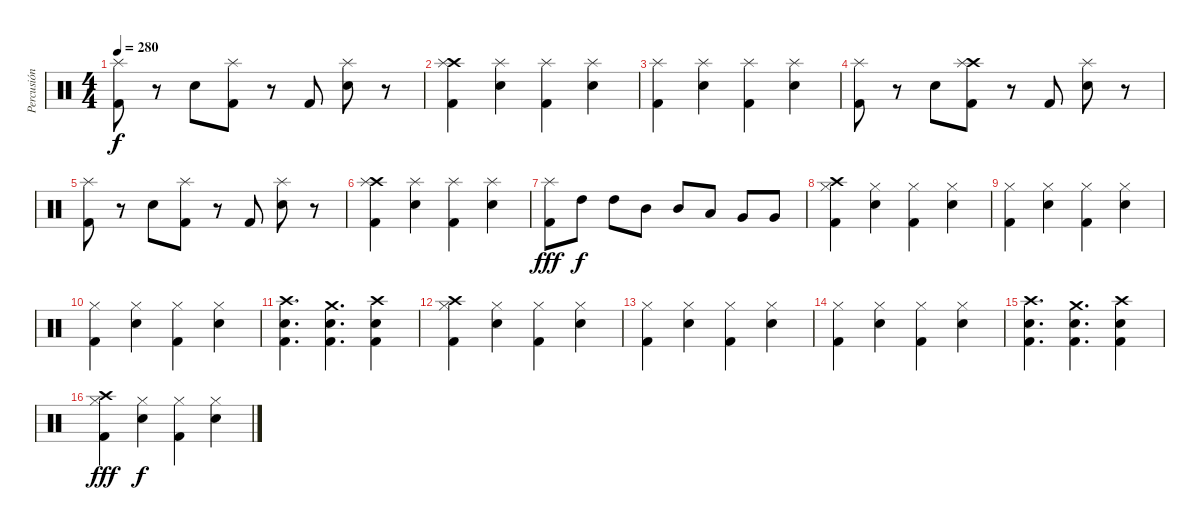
\track ("Percusión" "Percusión") {instrument percussion}
\staff {score}
\articulation defaults
\ts (4 4)
\tempo 280
\clef neutral
\ks c
("Splash (hit)" "Kick (hit) 2").8{dy f} r.8 "Snare (hit) 2".8 ("Splash (hit)" "Kick (hit) 2").8 r.8 "Kick (hit) 2".8 ("Snare (hit) 2" "Splash (hit)").8 r.8 |
("Crash high (hit)" "Splash (hit)" "Kick (hit) 2").4 ("Snare (hit) 2" "Splash (hit)").4 ("Splash (hit)" "Kick (hit) 2").4 ("Snare (hit) 2" "Splash (hit)").4 |
("Splash (hit)" "Kick (hit) 2").4 ("Snare (hit) 2" "Splash (hit)").4 ("Splash (hit)" "Kick (hit) 2").4 ("Snare (hit) 2" "Splash (hit)").4 |
("Splash (hit)" "Kick (hit) 2").8 r.8 "Snare (hit) 2".8 ("Crash high (hit)" "Splash (hit)" "Kick (hit) 2").8 r.8 "Kick (hit) 2".8 ("Snare (hit) 2" "Splash (hit)").8 r.8 |
("Splash (hit)" "Kick (hit) 2").8 r.8 "Snare (hit) 2".8 ("Splash (hit)" "Kick (hit) 2").8 r.8 "Kick (hit) 2".8 ("Snare (hit) 2" "Splash (hit)").8 r.8 |
("Crash high (hit)" "Splash (hit)" "Kick (hit) 2").4 ("Snare (hit) 2" "Splash (hit)").4 ("Splash (hit)" "Kick (hit) 2").4 ("Snare (hit) 2" "Splash (hit)").4 |
("Splash (hit)" "Kick (hit) 2").8{dy fff} "High Tom (hit)".8{dy f} "High Tom (hit)".8 "Mid Tom (hit)".8 "Mid Tom (hit)".8 "Low Tom (hit)".8 "Very Low Tom (hit)".8 "Very Low Tom (hit)".8 |
("Crash high (hit)" "Hi-Hat (closed)" "Kick (hit) 2").4 ("Snare (hit) 2" "Hi-Hat (closed)").4 ("Hi-Hat (closed)" "Kick (hit) 2").4 ("Snare (hit) 2" "Hi-Hat (closed)").4 |
("Hi-Hat (closed)" "Kick (hit) 2").4 ("Snare (hit) 2" "Hi-Hat (closed)").4 ("Hi-Hat (closed)" "Kick (hit) 2").4 ("Snare (hit) 2" "Hi-Hat (closed)").4 |
("Hi-Hat (closed)" "Kick (hit) 2").4 ("Snare (hit) 2" "Hi-Hat (closed)").4 ("Hi-Hat (closed)" "Kick (hit) 2").4 ("Snare (hit) 2" "Hi-Hat (closed)").4 |
("Crash high (hit)" "Snare (hit) 2" "Kick (hit) 2").4{d} ("Crash medium (hit)" "Snare (hit) 2" "Kick (hit) 2").4{d} ("Crash high (hit)" "Snare (hit) 2" "Kick (hit) 2").4 |
("Crash high (hit)" "Hi-Hat (closed)" "Kick (hit) 2").4 ("Snare (hit) 2" "Hi-Hat (closed)").4 ("Hi-Hat (closed)" "Kick (hit) 2").4 ("Snare (hit) 2" "Hi-Hat (closed)").4 |
("Hi-Hat (closed)" "Kick (hit) 2").4 ("Snare (hit) 2" "Hi-Hat (closed)").4 ("Hi-Hat (closed)" "Kick (hit) 2").4 ("Snare (hit) 2" "Hi-Hat (closed)").4 |
("Hi-Hat (closed)" "Kick (hit) 2").4 ("Snare (hit) 2" "Hi-Hat (closed)").4 ("Hi-Hat (closed)" "Kick (hit) 2").4 ("Snare (hit) 2" "Hi-Hat (closed)").4 |
("Crash high (hit)" "Snare (hit) 2" "Kick (hit) 2").4{d} ("Crash medium (hit)" "Snare (hit) 2" "Kick (hit) 2").4{d} ("Crash high (hit)" "Snare (hit) 2" "Kick (hit) 2").4 |
("Crash high (hit)" "Hi-Hat (closed)" "Kick (hit) 2").4{dy fff} ("Snare (hit) 2" "Hi-Hat (closed)").4{dy f} ("Hi-Hat (closed)" "Kick (hit) 2").4 ("Snare (hit) 2" "Hi-Hat (closed)").4
